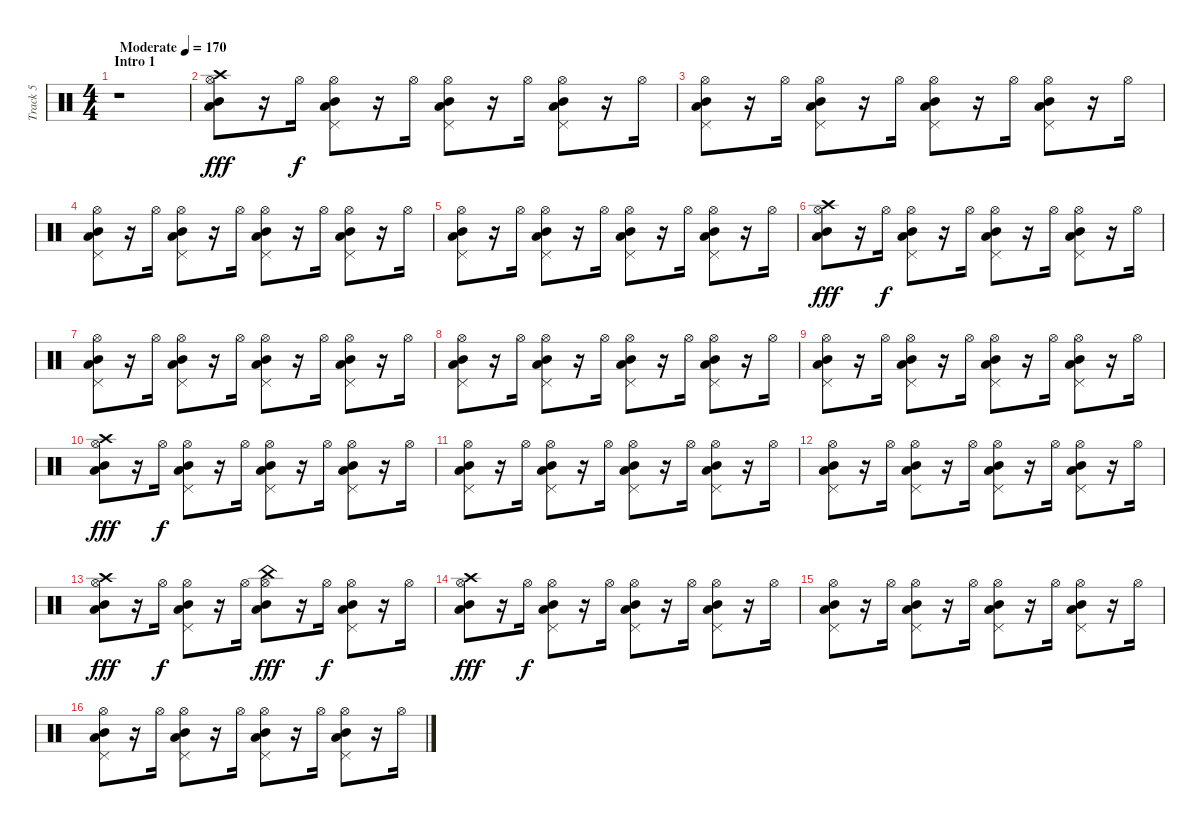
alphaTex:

\track ("Track 5" "Track 5") {instrument percussion}
\staff {score}
\articulation defaults
\ts (4 4)
\section ("" "Intro 1")
\tempo (170 "Moderate")
\clef neutral
\ks c
r.1{dy fff} |
("Hi-Hat (open)" "Low Tom (hit)" "Mid Tom (hit)" "Crash high (hit)").8 r.16 "Hi-Hat (open)".16{dy f} ("Hi-Hat (open)" "Low Tom (hit)" "Mid Tom (hit)" "Pedal Hi-Hat (hit)").8 r.16 "Hi-Hat (open)".16 ("Hi-Hat (open)" "Low Tom (hit)" "Mid Tom (hit)" "Pedal Hi-Hat (hit)").8 r.16 "Hi-Hat (open)".16 ("Hi-Hat (open)" "Low Tom (hit)" "Mid Tom (hit)" "Pedal Hi-Hat (hit)").8 r.16 "Hi-Hat (open)".16 |
("Hi-Hat (open)" "Low Tom (hit)" "Mid Tom (hit)" "Pedal Hi-Hat (hit)").8 r.16 "Hi-Hat (open)".16 ("Hi-Hat (open)" "Low Tom (hit)" "Mid Tom (hit)" "Pedal Hi-Hat (hit)").8 r.16 "Hi-Hat (open)".16 ("Hi-Hat (open)" "Low Tom (hit)" "Mid Tom (hit)" "Pedal Hi-Hat (hit)").8 r.16 "Hi-Hat (open)".16 ("Hi-Hat (open)" "Low Tom (hit)" "Mid Tom (hit)" "Pedal Hi-Hat (hit)").8 r.16 "Hi-Hat (open)".16 |
("Hi-Hat (open)" "Low Tom (hit)" "Mid Tom (hit)" "Pedal Hi-Hat (hit)").8 r.16 "Hi-Hat (open)".16 ("Hi-Hat (open)" "Low Tom (hit)" "Mid Tom (hit)" "Pedal Hi-Hat (hit)").8 r.16 "Hi-Hat (open)".16 ("Hi-Hat (open)" "Low Tom (hit)" "Mid Tom (hit)" "Pedal Hi-Hat (hit)").8 r.16 "Hi-Hat (open)".16 ("Hi-Hat (open)" "Low Tom (hit)" "Mid Tom (hit)" "Pedal Hi-Hat (hit)").8 r.16 "Hi-Hat (open)".16 |
("Hi-Hat (open)" "Low Tom (hit)" "Mid Tom (hit)" "Pedal Hi-Hat (hit)").8 r.16 "Hi-Hat (open)".16 ("Hi-Hat (open)" "Low Tom (hit)" "Mid Tom (hit)" "Pedal Hi-Hat (hit)").8 r.16 "Hi-Hat (open)".16 ("Hi-Hat (open)" "Low Tom (hit)" "Mid Tom (hit)" "Pedal Hi-Hat (hit)").8 r.16 "Hi-Hat (open)".16 ("Hi-Hat (open)" "Low Tom (hit)" "Mid Tom (hit)" "Pedal Hi-Hat (hit)").8 r.16 "Hi-Hat (open)".16 |
("Hi-Hat (open)" "Low Tom (hit)" "Mid Tom (hit)" "Crash high (hit)").8{dy fff} r.16 "Hi-Hat (open)".16{dy f} ("Hi-Hat (open)" "Low Tom (hit)" "Mid Tom (hit)" "Pedal Hi-Hat (hit)").8 r.16 "Hi-Hat (open)".16 ("Hi-Hat (open)" "Low Tom (hit)" "Mid Tom (hit)" "Pedal Hi-Hat (hit)").8 r.16 "Hi-Hat (open)".16 ("Hi-Hat (open)" "Low Tom (hit)" "Mid Tom (hit)" "Pedal Hi-Hat (hit)").8 r.16 "Hi-Hat (open)".16 |
("Hi-Hat (open)" "Low Tom (hit)" "Mid Tom (hit)" "Pedal Hi-Hat (hit)").8 r.16 "Hi-Hat (open)".16 ("Hi-Hat (open)" "Low Tom (hit)" "Mid Tom (hit)" "Pedal Hi-Hat (hit)").8 r.16 "Hi-Hat (open)".16 ("Hi-Hat (open)" "Low Tom (hit)" "Mid Tom (hit)" "Pedal Hi-Hat (hit)").8 r.16 "Hi-Hat (open)".16 ("Hi-Hat (open)" "Low Tom (hit)" "Mid Tom (hit)" "Pedal Hi-Hat (hit)").8 r.16 "Hi-Hat (open)".16 |
("Hi-Hat (open)" "Low Tom (hit)" "Mid Tom (hit)" "Pedal Hi-Hat (hit)").8 r.16 "Hi-Hat (open)".16 ("Hi-Hat (open)" "Low Tom (hit)" "Mid Tom (hit)" "Pedal Hi-Hat (hit)").8 r.16 "Hi-Hat (open)".16 ("Hi-Hat (open)" "Low Tom (hit)" "Mid Tom (hit)" "Pedal Hi-Hat (hit)").8 r.16 "Hi-Hat (open)".16 ("Hi-Hat (open)" "Low Tom (hit)" "Mid Tom (hit)" "Pedal Hi-Hat (hit)").8 r.16 "Hi-Hat (open)".16 |
("Hi-Hat (open)" "Low Tom (hit)" "Mid Tom (hit)" "Pedal Hi-Hat (hit)").8 r.16 "Hi-Hat (open)".16 ("Hi-Hat (open)" "Low Tom (hit)" "Mid Tom (hit)" "Pedal Hi-Hat (hit)").8 r.16 "Hi-Hat (open)".16 ("Hi-Hat (open)" "Low Tom (hit)" "Mid Tom (hit)" "Pedal Hi-Hat (hit)").8 r.16 "Hi-Hat (open)".16 ("Hi-Hat (open)" "Low Tom (hit)" "Mid Tom (hit)" "Pedal Hi-Hat (hit)").8 r.16 "Hi-Hat (open)".16 |
("Hi-Hat (open)" "Low Tom (hit)" "Mid Tom (hit)" "Crash high (hit)").8{dy fff} r.16 "Hi-Hat (open)".16{dy f} ("Hi-Hat (open)" "Low Tom (hit)" "Mid Tom (hit)" "Pedal Hi-Hat (hit)").8 r.16 "Hi-Hat (open)".16 ("Hi-Hat (open)" "Low Tom (hit)" "Mid Tom (hit)" "Pedal Hi-Hat (hit)").8 r.16 "Hi-Hat (open)".16 ("Hi-Hat (open)" "Low Tom (hit)" "Mid Tom (hit)" "Pedal Hi-Hat (hit)").8 r.16 "Hi-Hat (open)".16 |
("Hi-Hat (open)" "Low Tom (hit)" "Mid Tom (hit)" "Pedal Hi-Hat (hit)").8 r.16 "Hi-Hat (open)".16 ("Hi-Hat (open)" "Low Tom (hit)" "Mid Tom (hit)" "Pedal Hi-Hat (hit)").8 r.16 "Hi-Hat (open)".16 ("Hi-Hat (open)" "Low Tom (hit)" "Mid Tom (hit)" "Pedal Hi-Hat (hit)").8 r.16 "Hi-Hat (open)".16 ("Hi-Hat (open)" "Low Tom (hit)" "Mid Tom (hit)" "Pedal Hi-Hat (hit)").8 r.16 "Hi-Hat (open)".16 |
("Hi-Hat (open)" "Low Tom (hit)" "Mid Tom (hit)" "Pedal Hi-Hat (hit)").8 r.16 "Hi-Hat (open)".16 ("Hi-Hat (open)" "Low Tom (hit)" "Mid Tom (hit)" "Pedal Hi-Hat (hit)").8 r.16 "Hi-Hat (open)".16 ("Hi-Hat (open)" "Low Tom (hit)" "Mid Tom (hit)" "Pedal Hi-Hat (hit)").8 r.16 "Hi-Hat (open)".16 ("Hi-Hat (open)" "Low Tom (hit)" "Mid Tom (hit)" "Pedal Hi-Hat (hit)").8 r.16 "Hi-Hat (open)".16 |
("Hi-Hat (open)" "Low Tom (hit)" "Mid Tom (hit)" "Crash high (hit)").8{dy fff} r.16 "Hi-Hat (open)".16{dy f} ("Hi-Hat (open)" "Low Tom (hit)" "Mid Tom (hit)" "Pedal Hi-Hat (hit)").8 r.16 "Hi-Hat (open)".16 ("Hi-Hat (open)" "Low Tom (hit)" "Mid Tom (hit)" "China (hit)").8{dy fff} r.16 "Hi-Hat (open)".16{dy f} ("Hi-Hat (open)" "Low Tom (hit)" "Mid Tom (hit)" "Pedal Hi-Hat (hit)").8 r.16 "Hi-Hat (open)".16 |
("Hi-Hat (open)" "Low Tom (hit)" "Mid Tom (hit)" "Crash high (hit)").8{dy fff} r.16 "Hi-Hat (open)".16{dy f} ("Hi-Hat (open)" "Low Tom (hit)" "Mid Tom (hit)" "Pedal Hi-Hat (hit)").8 r.16 "Hi-Hat (open)".16 ("Hi-Hat (open)" "Low Tom (hit)" "Mid Tom (hit)" "Pedal Hi-Hat (hit)").8 r.16 "Hi-Hat (open)".16 ("Hi-Hat (open)" "Low Tom (hit)" "Mid Tom (hit)" "Pedal Hi-Hat (hit)").8 r.16 "Hi-Hat (open)".16 |
("Hi-Hat (open)" "Low Tom (hit)" "Mid Tom (hit)" "Pedal Hi-Hat (hit)").8 r.16 "Hi-Hat (open)".16 ("Hi-Hat (open)" "Low Tom (hit)" "Mid Tom (hit)" "Pedal Hi-Hat (hit)").8 r.16 "Hi-Hat (open)".16 ("Hi-Hat (open)" "Low Tom (hit)" "Mid Tom (hit)" "Pedal Hi-Hat (hit)").8 r.16 "Hi-Hat (open)".16 ("Hi-Hat (open)" "Low Tom (hit)" "Mid Tom (hit)" "Pedal Hi-Hat (hit)").8 r.16 "Hi-Hat (open)".16 |
("Hi-Hat (open)" "Low Tom (hit)" "Mid Tom (hit)" "Pedal Hi-Hat (hit)").8 r.16 "Hi-Hat (open)".16 ("Hi-Hat (open)" "Low Tom (hit)" "Mid Tom (hit)" "Pedal Hi-Hat (hit)").8 r.16 "Hi-Hat (open)".16 ("Hi-Hat (open)" "Low Tom (hit)" "Mid Tom (hit)" "Pedal Hi-Hat (hit)").8 r.16 "Hi-Hat (open)".16 ("Hi-Hat (open)" "Low Tom (hit)" "Mid Tom (hit)" "Pedal Hi-Hat (hit)").8 r.16 "Hi-Hat (open)".16
